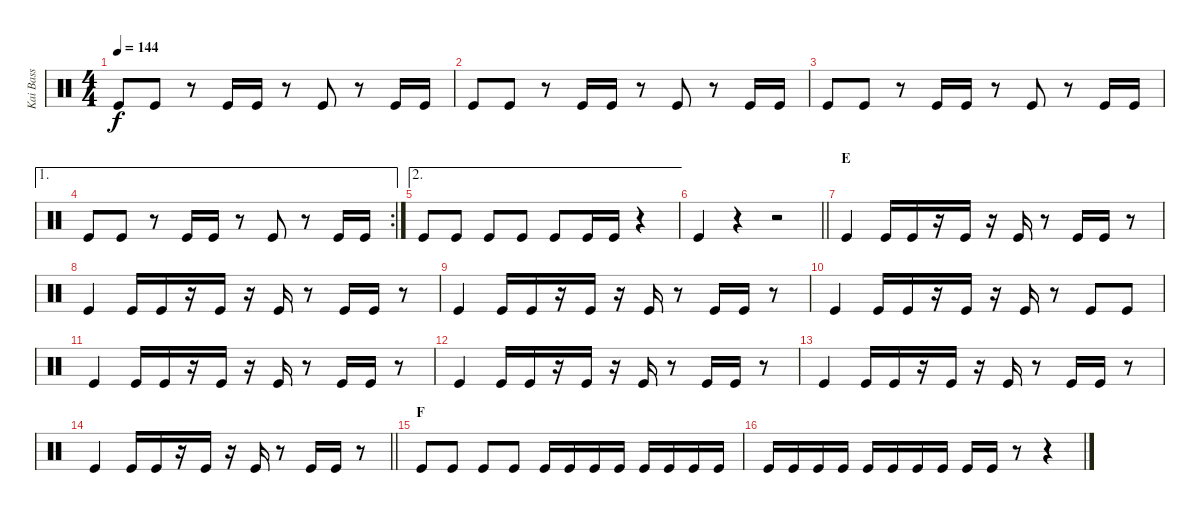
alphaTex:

\track ("Kai Bass" "Kai Bass") {instrument percussion}
\staff {score}
\articulation defaults
\ts (4 4)
\tempo 144
\clef neutral
\ks c "Kick (hit)".8{dy f} "Kick (hit)".8
r.8 "Kick (hit)".16 "Kick (hit)".16 r.8 "Kick (hit)".8 r.8 "Kick (hit)".16 "Kick (hit)".16 |
"Kick (hit)".8 "Kick (hit)".8 r.8 "Kick (hit)".16 "Kick (hit)".16 r.8 "Kick (hit)".8 r.8 "Kick (hit)".16 "Kick (hit)".16 |
"Kick (hit)".8 "Kick (hit)".8 r.8 "Kick (hit)".16 "Kick (hit)".16 r.8 "Kick (hit)".8 r.8 "Kick (hit)".16 "Kick (hit)".16 |
\ae 1
\rc 2 "Kick (hit)".8 "Kick (hit)".8
r.8 "Kick (hit)".16 "Kick (hit)".16 r.8 "Kick (hit)".8 r.8 "Kick (hit)".16 "Kick (hit)".16 |
\ae 2 "Kick (hit)".8 "Kick (hit)".8 "Kick (hit)".8 "Kick (hit)".8 "Kick (hit)".8 "Kick (hit)".16 "Kick (hit)".16
r.4 |
\barLineRight lightlight "Kick (hit)".4
r.4 r.2 |
\section ("" "E")
"Kick (hit)".4 "Kick (hit)".16 "Kick (hit)".16 r.16 "Kick (hit)".16 r.16 "Kick (hit)".16 r.8 "Kick (hit)".16 "Kick (hit)".16 r.8 |
"Kick (hit)".4 "Kick (hit)".16 "Kick (hit)".16 r.16 "Kick (hit)".16 r.16 "Kick (hit)".16 r.8 "Kick (hit)".16 "Kick (hit)".16 r.8 |
"Kick (hit)".4 "Kick (hit)".16 "Kick (hit)".16 r.16 "Kick (hit)".16 r.16 "Kick (hit)".16 r.8 "Kick (hit)".16 "Kick (hit)".16 r.8 |
"Kick (hit)".4 "Kick (hit)".16 "Kick (hit)".16 r.16 "Kick (hit)".16 r.16 "Kick (hit)".16 r.8 "Kick (hit)".8 "Kick (hit)".8 |
"Kick (hit)".4 "Kick (hit)".16 "Kick (hit)".16 r.16 "Kick (hit)".16 r.16 "Kick (hit)".16 r.8 "Kick (hit)".16 "Kick (hit)".16 r.8 |
"Kick (hit)".4 "Kick (hit)".16 "Kick (hit)".16 r.16 "Kick (hit)".16 r.16 "Kick (hit)".16 r.8 "Kick (hit)".16 "Kick (hit)".16 r.8 |
"Kick (hit)".4 "Kick (hit)".16 "Kick (hit)".16 r.16 "Kick (hit)".16 r.16 "Kick (hit)".16 r.8 "Kick (hit)".16 "Kick (hit)".16 r.8 |
\barLineRight lightlight "Kick (hit)".4 "Kick (hit)".16 "Kick (hit)".16
r.16 "Kick (hit)".16 r.16 "Kick (hit)".16 r.8 "Kick (hit)".16 "Kick (hit)".16 r.8 |
\section ("" "F")
"Kick (hit)".8 "Kick (hit)".8 "Kick (hit)".8 "Kick (hit)".8 "Kick (hit)".16 "Kick (hit)".16 "Kick (hit)".16 "Kick (hit)".16 "Kick (hit)".16 "Kick (hit)".16 "Kick (hit)".16 "Kick (hit)".16 |
"Kick (hit)".16 "Kick (hit)".16 "Kick (hit)".16 "Kick (hit)".16 "Kick (hit)".16 "Kick (hit)".16 "Kick (hit)".16 "Kick (hit)".16 "Kick (hit)".16 "Kick (hit)".16 r.8 r.4
